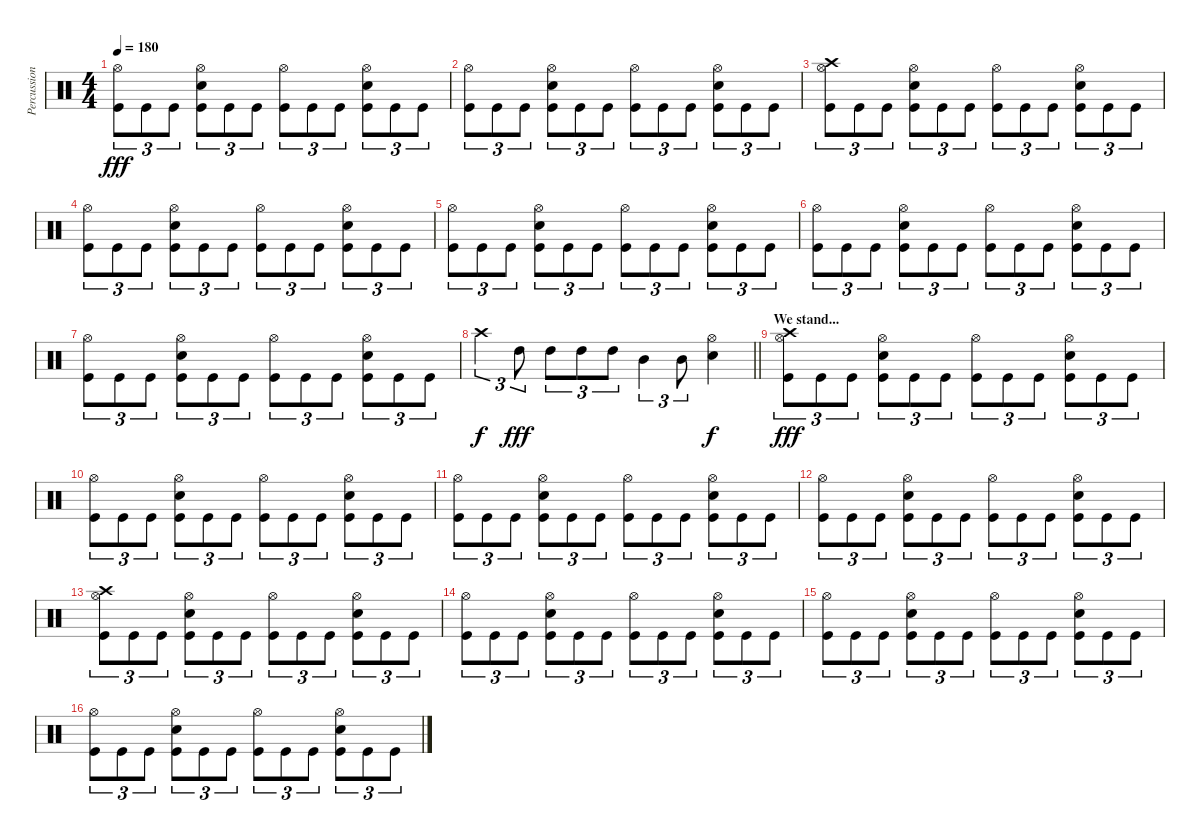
\track ("Percussion" "Percussion") {instrument percussion}
\staff {score}
\articulation defaults
\ts (4 4)
\tempo 180
\clef neutral
\ks c
("Hi-Hat (open)" "Kick (hit)").8{tu (3 2) dy fff} "Kick (hit)".8{tu (3 2)} "Kick (hit)".8{tu (3 2)} ("Hi-Hat (open)" "Electric Snare (hit)" "Kick (hit)").8{tu (3 2)} "Kick (hit)".8{tu (3 2)} "Kick (hit)".8{tu (3 2)} ("Hi-Hat (open)" "Kick (hit)").8{tu (3 2)} "Kick (hit)".8{tu (3 2)} "Kick (hit)".8{tu (3 2)} ("Hi-Hat (open)" "Electric Snare (hit)" "Kick (hit)").8{tu (3 2)} "Kick (hit)".8{tu (3 2)} "Kick (hit)".8{tu (3 2)} |
("Hi-Hat (open)" "Kick (hit)").8{tu (3 2)} "Kick (hit)".8{tu (3 2)} "Kick (hit)".8{tu (3 2)} ("Hi-Hat (open)" "Electric Snare (hit)" "Kick (hit)").8{tu (3 2)} "Kick (hit)".8{tu (3 2)} "Kick (hit)".8{tu (3 2)} ("Hi-Hat (open)" "Kick (hit)").8{tu (3 2)} "Kick (hit)".8{tu (3 2)} "Kick (hit)".8{tu (3 2)} ("Hi-Hat (open)" "Electric Snare (hit)" "Kick (hit)").8{tu (3 2)} "Kick (hit)".8{tu (3 2)} "Kick (hit)".8{tu (3 2)} |
("Crash high (hit)" "Hi-Hat (open)" "Kick (hit)").8{tu (3 2)} "Kick (hit)".8{tu (3 2)} "Kick (hit)".8{tu (3 2)} ("Hi-Hat (open)" "Electric Snare (hit)" "Kick (hit)").8{tu (3 2)} "Kick (hit)".8{tu (3 2)} "Kick (hit)".8{tu (3 2)} ("Hi-Hat (open)" "Kick (hit)").8{tu (3 2)} "Kick (hit)".8{tu (3 2)} "Kick (hit)".8{tu (3 2)} ("Hi-Hat (open)" "Electric Snare (hit)" "Kick (hit)").8{tu (3 2)} "Kick (hit)".8{tu (3 2)} "Kick (hit)".8{tu (3 2)} |
("Hi-Hat (open)" "Kick (hit)").8{tu (3 2)} "Kick (hit)".8{tu (3 2)} "Kick (hit)".8{tu (3 2)} ("Hi-Hat (open)" "Electric Snare (hit)" "Kick (hit)").8{tu (3 2)} "Kick (hit)".8{tu (3 2)} "Kick (hit)".8{tu (3 2)} ("Hi-Hat (open)" "Kick (hit)").8{tu (3 2)} "Kick (hit)".8{tu (3 2)} "Kick (hit)".8{tu (3 2)} ("Hi-Hat (open)" "Electric Snare (hit)" "Kick (hit)").8{tu (3 2)} "Kick (hit)".8{tu (3 2)} "Kick (hit)".8{tu (3 2)} |
("Hi-Hat (open)" "Kick (hit)").8{tu (3 2)} "Kick (hit)".8{tu (3 2)} "Kick (hit)".8{tu (3 2)} ("Hi-Hat (open)" "Electric Snare (hit)" "Kick (hit)").8{tu (3 2)} "Kick (hit)".8{tu (3 2)} "Kick (hit)".8{tu (3 2)} ("Hi-Hat (open)" "Kick (hit)").8{tu (3 2)} "Kick (hit)".8{tu (3 2)} "Kick (hit)".8{tu (3 2)} ("Hi-Hat (open)" "Electric Snare (hit)" "Kick (hit)").8{tu (3 2)} "Kick (hit)".8{tu (3 2)} "Kick (hit)".8{tu (3 2)} |
("Hi-Hat (open)" "Kick (hit)").8{tu (3 2)} "Kick (hit)".8{tu (3 2)} "Kick (hit)".8{tu (3 2)} ("Hi-Hat (open)" "Electric Snare (hit)" "Kick (hit)").8{tu (3 2)} "Kick (hit)".8{tu (3 2)} "Kick (hit)".8{tu (3 2)} ("Hi-Hat (open)" "Kick (hit)").8{tu (3 2)} "Kick (hit)".8{tu (3 2)} "Kick (hit)".8{tu (3 2)} ("Hi-Hat (open)" "Electric Snare (hit)" "Kick (hit)").8{tu (3 2)} "Kick (hit)".8{tu (3 2)} "Kick (hit)".8{tu (3 2)} |
("Hi-Hat (open)" "Kick (hit)").8{tu (3 2)} "Kick (hit)".8{tu (3 2)} "Kick (hit)".8{tu (3 2)} ("Hi-Hat (open)" "Electric Snare (hit)" "Kick (hit)").8{tu (3 2)} "Kick (hit)".8{tu (3 2)} "Kick (hit)".8{tu (3 2)} ("Hi-Hat (open)" "Kick (hit)").8{tu (3 2)} "Kick (hit)".8{tu (3 2)} "Kick (hit)".8{tu (3 2)} ("Hi-Hat (open)" "Electric Snare (hit)" "Kick (hit)").8{tu (3 2)} "Kick (hit)".8{tu (3 2)} "Kick (hit)".8{tu (3 2)} |
\barLineRight lightlight "Crash high (hit)".4{tu (3 2) dy f} "High Tom (hit)".8{tu (3 2) dy fff} "High Tom (hit)".8{tu (3 2)} "High Tom (hit)".8{tu (3 2)} "High Tom (hit)".8{tu (3 2)} "Mid Tom (hit)".4{tu (3 2)} "Mid Tom (hit)".8{tu (3 2)}
("Hi-Hat (open)" "Electric Snare (hit)").4{dy f} |
\section ("" "We stand...")
("Crash high (hit)" "Hi-Hat (open)" "Kick (hit)").8{tu (3 2) dy fff} "Kick (hit)".8{tu (3 2)} "Kick (hit)".8{tu (3 2)} ("Hi-Hat (open)" "Electric Snare (hit)" "Kick (hit)").8{tu (3 2)} "Kick (hit)".8{tu (3 2)} "Kick (hit)".8{tu (3 2)} ("Hi-Hat (open)" "Kick (hit)").8{tu (3 2)} "Kick (hit)".8{tu (3 2)} "Kick (hit)".8{tu (3 2)} ("Hi-Hat (open)" "Electric Snare (hit)" "Kick (hit)").8{tu (3 2)} "Kick (hit)".8{tu (3 2)} "Kick (hit)".8{tu (3 2)} |
("Hi-Hat (open)" "Kick (hit)").8{tu (3 2)} "Kick (hit)".8{tu (3 2)} "Kick (hit)".8{tu (3 2)} ("Hi-Hat (open)" "Electric Snare (hit)" "Kick (hit)").8{tu (3 2)} "Kick (hit)".8{tu (3 2)} "Kick (hit)".8{tu (3 2)} ("Hi-Hat (open)" "Kick (hit)").8{tu (3 2)} "Kick (hit)".8{tu (3 2)} "Kick (hit)".8{tu (3 2)} ("Hi-Hat (open)" "Electric Snare (hit)" "Kick (hit)").8{tu (3 2)} "Kick (hit)".8{tu (3 2)} "Kick (hit)".8{tu (3 2)} |
("Hi-Hat (open)" "Kick (hit)").8{tu (3 2)} "Kick (hit)".8{tu (3 2)} "Kick (hit)".8{tu (3 2)} ("Hi-Hat (open)" "Electric Snare (hit)" "Kick (hit)").8{tu (3 2)} "Kick (hit)".8{tu (3 2)} "Kick (hit)".8{tu (3 2)} ("Hi-Hat (open)" "Kick (hit)").8{tu (3 2)} "Kick (hit)".8{tu (3 2)} "Kick (hit)".8{tu (3 2)} ("Hi-Hat (open)" "Electric Snare (hit)" "Kick (hit)").8{tu (3 2)} "Kick (hit)".8{tu (3 2)} "Kick (hit)".8{tu (3 2)} |
("Hi-Hat (open)" "Kick (hit)").8{tu (3 2)} "Kick (hit)".8{tu (3 2)} "Kick (hit)".8{tu (3 2)} ("Hi-Hat (open)" "Electric Snare (hit)" "Kick (hit)").8{tu (3 2)} "Kick (hit)".8{tu (3 2)} "Kick (hit)".8{tu (3 2)} ("Hi-Hat (open)" "Kick (hit)").8{tu (3 2)} "Kick (hit)".8{tu (3 2)} "Kick (hit)".8{tu (3 2)} ("Hi-Hat (open)" "Electric Snare (hit)" "Kick (hit)").8{tu (3 2)} "Kick (hit)".8{tu (3 2)} "Kick (hit)".8{tu (3 2)} |
("Crash high (hit)" "Hi-Hat (open)" "Kick (hit)").8{tu (3 2)} "Kick (hit)".8{tu (3 2)} "Kick (hit)".8{tu (3 2)} ("Hi-Hat (open)" "Electric Snare (hit)" "Kick (hit)").8{tu (3 2)} "Kick (hit)".8{tu (3 2)} "Kick (hit)".8{tu (3 2)} ("Hi-Hat (open)" "Kick (hit)").8{tu (3 2)} "Kick (hit)".8{tu (3 2)} "Kick (hit)".8{tu (3 2)} ("Hi-Hat (open)" "Electric Snare (hit)" "Kick (hit)").8{tu (3 2)} "Kick (hit)".8{tu (3 2)} "Kick (hit)".8{tu (3 2)} |
("Hi-Hat (open)" "Kick (hit)").8{tu (3 2)} "Kick (hit)".8{tu (3 2)} "Kick (hit)".8{tu (3 2)} ("Hi-Hat (open)" "Electric Snare (hit)" "Kick (hit)").8{tu (3 2)} "Kick (hit)".8{tu (3 2)} "Kick (hit)".8{tu (3 2)} ("Hi-Hat (open)" "Kick (hit)").8{tu (3 2)} "Kick (hit)".8{tu (3 2)} "Kick (hit)".8{tu (3 2)} ("Hi-Hat (open)" "Electric Snare (hit)" "Kick (hit)").8{tu (3 2)} "Kick (hit)".8{tu (3 2)} "Kick (hit)".8{tu (3 2)} |
("Hi-Hat (open)" "Kick (hit)").8{tu (3 2)} "Kick (hit)".8{tu (3 2)} "Kick (hit)".8{tu (3 2)} ("Hi-Hat (open)" "Electric Snare (hit)" "Kick (hit)").8{tu (3 2)} "Kick (hit)".8{tu (3 2)} "Kick (hit)".8{tu (3 2)} ("Hi-Hat (open)" "Kick (hit)").8{tu (3 2)} "Kick (hit)".8{tu (3 2)} "Kick (hit)".8{tu (3 2)} ("Hi-Hat (open)" "Electric Snare (hit)" "Kick (hit)").8{tu (3 2)} "Kick (hit)".8{tu (3 2)} "Kick (hit)".8{tu (3 2)} |
("Hi-Hat (open)" "Kick (hit)").8{tu (3 2)} "Kick (hit)".8{tu (3 2)} "Kick (hit)".8{tu (3 2)} ("Hi-Hat (open)" "Electric Snare (hit)" "Kick (hit)").8{tu (3 2)} "Kick (hit)".8{tu (3 2)} "Kick (hit)".8{tu (3 2)} ("Hi-Hat (open)" "Kick (hit)").8{tu (3 2)} "Kick (hit)".8{tu (3 2)} "Kick (hit)".8{tu (3 2)} ("Hi-Hat (open)" "Electric Snare (hit)" "Kick (hit)").8{tu (3 2)} "Kick (hit)".8{tu (3 2)} "Kick (hit)".8{tu (3 2)}
